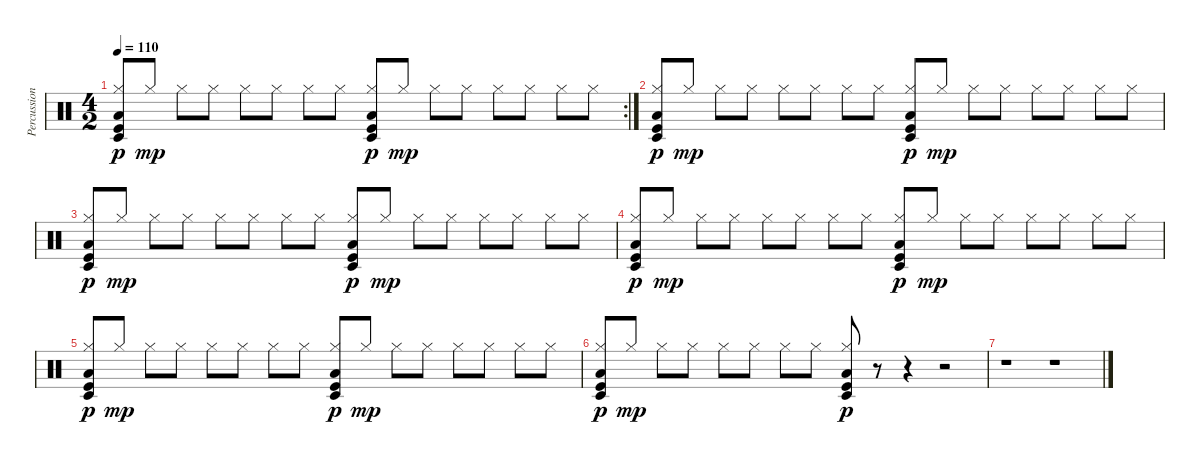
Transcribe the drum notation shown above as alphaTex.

\track ("Percussion2" "Percussion") {instrument percussion}
\staff
\articulation defaults
\rc 2
\ts (4 2)
\tempo 110
\clef neutral
\ks c
("Hi-Hat (closed)" "Low Floor Tom (hit)" "Kick (hit)" "Timbale low (hit)").8{dy p} "Hi-Hat (closed)".8{dy mp} "Hi-Hat (closed)".8 "Hi-Hat (closed)".8 "Hi-Hat (closed)".8 "Hi-Hat (closed)".8 "Hi-Hat (closed)".8 "Hi-Hat (closed)".8 ("Hi-Hat (closed)" "Low Floor Tom (hit)" "Kick (hit)" "Timbale low (hit)").8{dy p} "Hi-Hat (closed)".8{dy mp} "Hi-Hat (closed)".8 "Hi-Hat (closed)".8 "Hi-Hat (closed)".8 "Hi-Hat (closed)".8 "Hi-Hat (closed)".8 "Hi-Hat (closed)".8 |
("Hi-Hat (closed)" "Low Floor Tom (hit)" "Kick (hit)" "Timbale low (hit)").8{dy p} "Hi-Hat (closed)".8{dy mp} "Hi-Hat (closed)".8 "Hi-Hat (closed)".8 "Hi-Hat (closed)".8 "Hi-Hat (closed)".8 "Hi-Hat (closed)".8 "Hi-Hat (closed)".8 ("Hi-Hat (closed)" "Low Floor Tom (hit)" "Kick (hit)" "Timbale low (hit)").8{dy p} "Hi-Hat (closed)".8{dy mp} "Hi-Hat (closed)".8 "Hi-Hat (closed)".8 "Hi-Hat (closed)".8 "Hi-Hat (closed)".8 "Hi-Hat (closed)".8 "Hi-Hat (closed)".8 |
("Hi-Hat (closed)" "Low Floor Tom (hit)" "Kick (hit)" "Timbale low (hit)").8{dy p} "Hi-Hat (closed)".8{dy mp} "Hi-Hat (closed)".8 "Hi-Hat (closed)".8 "Hi-Hat (closed)".8 "Hi-Hat (closed)".8 "Hi-Hat (closed)".8 "Hi-Hat (closed)".8 ("Hi-Hat (closed)" "Low Floor Tom (hit)" "Kick (hit)" "Timbale low (hit)").8{dy p} "Hi-Hat (closed)".8{dy mp} "Hi-Hat (closed)".8 "Hi-Hat (closed)".8 "Hi-Hat (closed)".8 "Hi-Hat (closed)".8 "Hi-Hat (closed)".8 "Hi-Hat (closed)".8 |
("Hi-Hat (closed)" "Low Floor Tom (hit)" "Kick (hit)" "Timbale low (hit)").8{dy p} "Hi-Hat (closed)".8{dy mp} "Hi-Hat (closed)".8 "Hi-Hat (closed)".8 "Hi-Hat (closed)".8 "Hi-Hat (closed)".8 "Hi-Hat (closed)".8 "Hi-Hat (closed)".8 ("Hi-Hat (closed)" "Low Floor Tom (hit)" "Kick (hit)" "Timbale low (hit)").8{dy p} "Hi-Hat (closed)".8{dy mp} "Hi-Hat (closed)".8 "Hi-Hat (closed)".8 "Hi-Hat (closed)".8 "Hi-Hat (closed)".8 "Hi-Hat (closed)".8 "Hi-Hat (closed)".8 |
("Hi-Hat (closed)" "Low Floor Tom (hit)" "Kick (hit)" "Timbale low (hit)").8{dy p} "Hi-Hat (closed)".8{dy mp} "Hi-Hat (closed)".8 "Hi-Hat (closed)".8 "Hi-Hat (closed)".8 "Hi-Hat (closed)".8 "Hi-Hat (closed)".8 "Hi-Hat (closed)".8 ("Hi-Hat (closed)" "Low Floor Tom (hit)" "Kick (hit)" "Timbale low (hit)").8{dy p} "Hi-Hat (closed)".8{dy mp} "Hi-Hat (closed)".8 "Hi-Hat (closed)".8 "Hi-Hat (closed)".8 "Hi-Hat (closed)".8 "Hi-Hat (closed)".8 "Hi-Hat (closed)".8 |
("Hi-Hat (closed)" "Low Floor Tom (hit)" "Kick (hit)" "Timbale low (hit)").8{dy p} "Hi-Hat (closed)".8{dy mp} "Hi-Hat (closed)".8 "Hi-Hat (closed)".8 "Hi-Hat (closed)".8 "Hi-Hat (closed)".8 "Hi-Hat (closed)".8 "Hi-Hat (closed)".8 ("Hi-Hat (closed)" "Low Floor Tom (hit)" "Kick (hit)" "Timbale low (hit)").8{dy p} r.8 r.4 r.2 |
r.1 r.1
